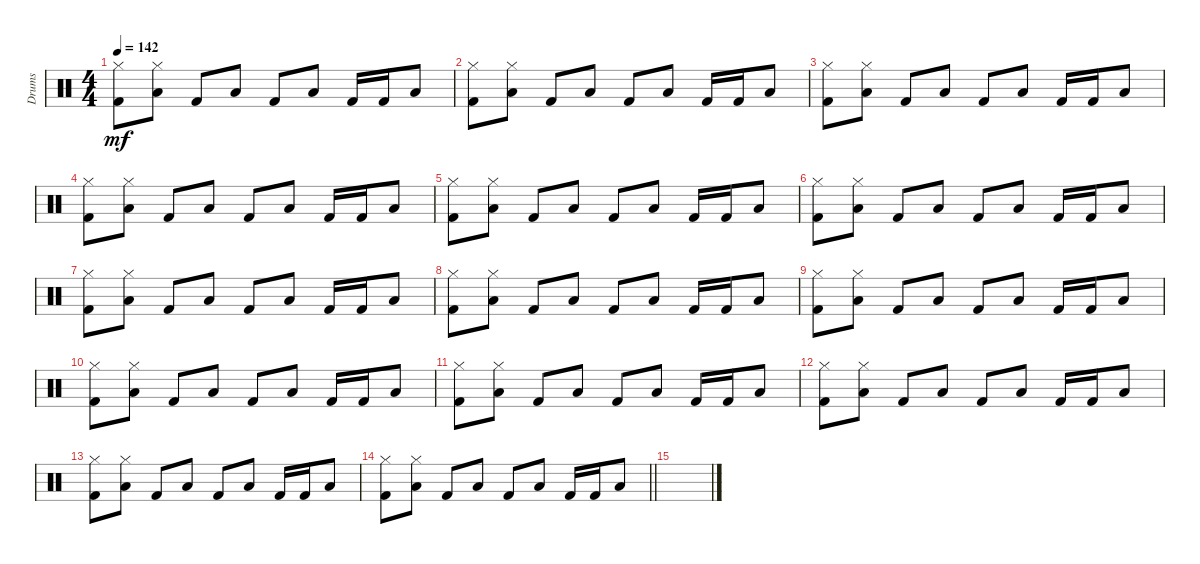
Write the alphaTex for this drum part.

\track ("Drums" "Drums") {instrument percussion}
\staff {score}
\articulation defaults
\ts (4 4)
\tempo 142
\clef neutral
\ks c
("Hi-Hat (closed)" "Kick (hit) 2").8{dy mf} ("Hi-Hat (closed)" "Low Tom (hit)").8 "Kick (hit) 2".8 "Low Tom (hit)".8 "Kick (hit) 2".8 "Low Tom (hit)".8 "Kick (hit) 2".16 "Kick (hit) 2".16 "Low Tom (hit)".8 |
("Hi-Hat (closed)" "Kick (hit) 2").8 ("Hi-Hat (closed)" "Low Tom (hit)").8 "Kick (hit) 2".8 "Low Tom (hit)".8 "Kick (hit) 2".8 "Low Tom (hit)".8 "Kick (hit) 2".16 "Kick (hit) 2".16 "Low Tom (hit)".8 |
("Hi-Hat (closed)" "Kick (hit) 2").8 ("Hi-Hat (closed)" "Low Tom (hit)").8 "Kick (hit) 2".8 "Low Tom (hit)".8 "Kick (hit) 2".8 "Low Tom (hit)".8 "Kick (hit) 2".16 "Kick (hit) 2".16 "Low Tom (hit)".8 |
("Hi-Hat (closed)" "Kick (hit) 2").8 ("Hi-Hat (closed)" "Low Tom (hit)").8 "Kick (hit) 2".8 "Low Tom (hit)".8 "Kick (hit) 2".8 "Low Tom (hit)".8 "Kick (hit) 2".16 "Kick (hit) 2".16 "Low Tom (hit)".8 |
("Hi-Hat (closed)" "Kick (hit) 2").8 ("Hi-Hat (closed)" "Low Tom (hit)").8 "Kick (hit) 2".8 "Low Tom (hit)".8 "Kick (hit) 2".8 "Low Tom (hit)".8 "Kick (hit) 2".16 "Kick (hit) 2".16 "Low Tom (hit)".8 |
("Hi-Hat (closed)" "Kick (hit) 2").8 ("Hi-Hat (closed)" "Low Tom (hit)").8 "Kick (hit) 2".8 "Low Tom (hit)".8 "Kick (hit) 2".8 "Low Tom (hit)".8 "Kick (hit) 2".16 "Kick (hit) 2".16 "Low Tom (hit)".8 |
("Hi-Hat (closed)" "Kick (hit) 2").8 ("Hi-Hat (closed)" "Low Tom (hit)").8 "Kick (hit) 2".8 "Low Tom (hit)".8 "Kick (hit) 2".8 "Low Tom (hit)".8 "Kick (hit) 2".16 "Kick (hit) 2".16 "Low Tom (hit)".8 |
("Hi-Hat (closed)" "Kick (hit) 2").8 ("Hi-Hat (closed)" "Low Tom (hit)").8 "Kick (hit) 2".8 "Low Tom (hit)".8 "Kick (hit) 2".8 "Low Tom (hit)".8 "Kick (hit) 2".16 "Kick (hit) 2".16 "Low Tom (hit)".8 |
("Hi-Hat (closed)" "Kick (hit) 2").8 ("Hi-Hat (closed)" "Low Tom (hit)").8 "Kick (hit) 2".8 "Low Tom (hit)".8 "Kick (hit) 2".8 "Low Tom (hit)".8 "Kick (hit) 2".16 "Kick (hit) 2".16 "Low Tom (hit)".8 |
("Hi-Hat (closed)" "Kick (hit) 2").8 ("Hi-Hat (closed)" "Low Tom (hit)").8 "Kick (hit) 2".8 "Low Tom (hit)".8 "Kick (hit) 2".8 "Low Tom (hit)".8 "Kick (hit) 2".16 "Kick (hit) 2".16 "Low Tom (hit)".8 |
("Hi-Hat (closed)" "Kick (hit) 2").8 ("Hi-Hat (closed)" "Low Tom (hit)").8 "Kick (hit) 2".8 "Low Tom (hit)".8 "Kick (hit) 2".8 "Low Tom (hit)".8 "Kick (hit) 2".16 "Kick (hit) 2".16 "Low Tom (hit)".8 |
("Hi-Hat (closed)" "Kick (hit) 2").8 ("Hi-Hat (closed)" "Low Tom (hit)").8 "Kick (hit) 2".8 "Low Tom (hit)".8 "Kick (hit) 2".8 "Low Tom (hit)".8 "Kick (hit) 2".16 "Kick (hit) 2".16 "Low Tom (hit)".8 |
("Hi-Hat (closed)" "Kick (hit) 2").8 ("Hi-Hat (closed)" "Low Tom (hit)").8 "Kick (hit) 2".8 "Low Tom (hit)".8 "Kick (hit) 2".8 "Low Tom (hit)".8 "Kick (hit) 2".16 "Kick (hit) 2".16 "Low Tom (hit)".8 |
\barLineRight lightlight
("Hi-Hat (closed)" "Kick (hit) 2").8 ("Hi-Hat (closed)" "Low Tom (hit)").8 "Kick (hit) 2".8 "Low Tom (hit)".8 "Kick (hit) 2".8 "Low Tom (hit)".8 "Kick (hit) 2".16 "Kick (hit) 2".16 "Low Tom (hit)".8 |
\section ("" "")
